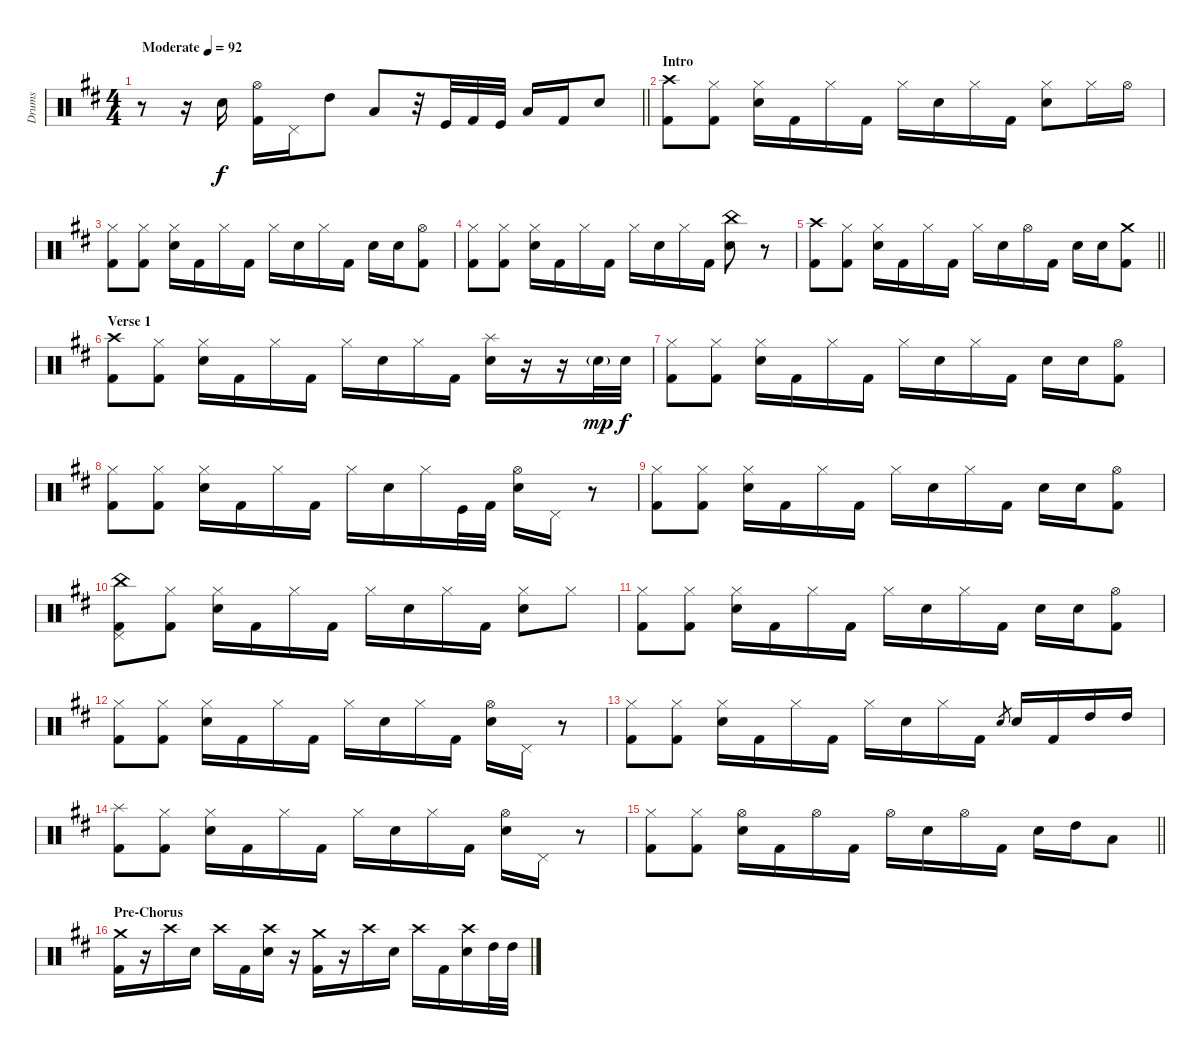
\track ("Drums" "Drums") {instrument percussion}
\staff {score}
\articulation defaults
\ts (4 4)
\tempo (92 "Moderate")
\clef neutral
\barLineRight lightlight
\ks d
r.8{dy f} r.16 "Snare (hit) 2".16 ("Hi-Hat (open)" "Kick (hit) 2").16 "Pedal Hi-Hat (hit)".16 "High Tom (hit)".8 "Low Tom (hit)".8 r.32 "Kick (hit)".32 "Kick (hit) 2".32 "Kick (hit)".32 "Low Tom (hit)".16 "Kick (hit) 2".16 "Snare (hit) 2".8 |
\section ("" "Intro")
("Crash high (hit)" "Kick (hit) 2").8 ("Hi-Hat (closed)" "Kick (hit) 2").8 ("Hi-Hat (closed)" "Snare (hit) 2").16 "Kick (hit) 2".16 "Hi-Hat (closed)".16 "Kick (hit) 2".16 "Hi-Hat (closed)".16 "Snare (hit) 2".16 "Hi-Hat (closed)".16 "Kick (hit) 2".16 ("Hi-Hat (closed)" "Snare (hit) 2").8 "Hi-Hat (closed)".16 "Hi-Hat (open)".16 |
("Hi-Hat (closed)" "Kick (hit) 2").8 ("Hi-Hat (closed)" "Kick (hit) 2").8 ("Hi-Hat (closed)" "Snare (hit) 2").16 "Kick (hit) 2".16 "Hi-Hat (closed)".16 "Kick (hit) 2".16 "Hi-Hat (closed)".16 "Snare (hit) 2".16 "Hi-Hat (closed)".16 "Kick (hit) 2".16 "Snare (hit) 2".16 "Snare (hit) 2".16 ("Hi-Hat (open)" "Kick (hit) 2").8 |
("Hi-Hat (closed)" "Kick (hit) 2").8 ("Hi-Hat (closed)" "Kick (hit) 2").8 ("Hi-Hat (closed)" "Snare (hit) 2").16 "Kick (hit) 2".16 "Hi-Hat (closed)".16 "Kick (hit) 2".16 "Hi-Hat (closed)".16 "Snare (hit) 2".16 "Hi-Hat (closed)".16 "Kick (hit) 2".16 ("China (hit)" "Snare (hit) 2").8 r.8 |
\barLineRight lightlight
("Crash high (hit)" "Kick (hit) 2").8 ("Hi-Hat (closed)" "Kick (hit) 2").8 ("Hi-Hat (closed)" "Snare (hit) 2").16 "Kick (hit) 2".16 "Hi-Hat (closed)".16 "Kick (hit) 2".16 "Hi-Hat (closed)".16 "Snare (hit) 2".16 "Hi-Hat (open)".16 "Kick (hit) 2".16 "Snare (hit) 2".16 "Snare (hit) 2".16 ("Crash medium (hit)" "Kick (hit) 2").8 |
\section ("" "Verse 1")
("Crash high (hit)" "Kick (hit) 2").8 ("Hi-Hat (closed)" "Kick (hit) 2").8 ("Hi-Hat (closed)" "Snare (hit) 2").16 "Kick (hit) 2".16 "Hi-Hat (closed)".16 "Kick (hit) 2".16 "Hi-Hat (closed)".16 "Snare (hit) 2".16 "Hi-Hat (closed)".16 "Kick (hit) 2".16 ("Splash (hit)" "Snare (hit) 2").16 r.16 r.16 "Snare (hit) 2"{g}.32{dy mp} "Snare (hit) 2".32{dy f} |
("Hi-Hat (closed)" "Kick (hit) 2").8 ("Hi-Hat (closed)" "Kick (hit) 2").8 ("Hi-Hat (closed)" "Snare (hit) 2").16 "Kick (hit) 2".16 "Hi-Hat (closed)".16 "Kick (hit) 2".16 "Hi-Hat (closed)".16 "Snare (hit) 2".16 "Hi-Hat (closed)".16 "Kick (hit) 2".16 "Snare (hit) 2".16 "Snare (hit) 2".16 ("Hi-Hat (open)" "Kick (hit) 2").8 |
("Hi-Hat (closed)" "Kick (hit) 2").8 ("Hi-Hat (closed)" "Kick (hit) 2").8 ("Hi-Hat (closed)" "Snare (hit) 2").16 "Kick (hit) 2".16 "Hi-Hat (closed)".16 "Kick (hit) 2".16 "Hi-Hat (closed)".16 "Snare (hit) 2".16 "Hi-Hat (closed)".16 "Kick (hit)".32 "Kick (hit) 2".32 ("Hi-Hat (open)" "Snare (hit) 2").16 "Pedal Hi-Hat (hit)".16 r.8 |
("Hi-Hat (closed)" "Kick (hit) 2").8 ("Hi-Hat (closed)" "Kick (hit) 2").8 ("Hi-Hat (closed)" "Snare (hit) 2").16 "Kick (hit) 2".16 "Hi-Hat (closed)".16 "Kick (hit) 2".16 "Hi-Hat (closed)".16 "Snare (hit) 2".16 "Hi-Hat (closed)".16 "Kick (hit) 2".16 "Snare (hit) 2".16 "Snare (hit) 2".16 ("Hi-Hat (open)" "Kick (hit) 2").8 |
("China (hit)" "Kick (hit) 2" "Pedal Hi-Hat (hit)").8 ("Hi-Hat (closed)" "Kick (hit) 2").8 ("Hi-Hat (closed)" "Snare (hit) 2").16 "Kick (hit) 2".16 "Hi-Hat (closed)".16 "Kick (hit) 2".16 "Hi-Hat (closed)".16 "Snare (hit) 2".16 "Hi-Hat (closed)".16 "Kick (hit) 2".16 ("Hi-Hat (closed)" "Snare (hit) 2").8 "Hi-Hat (closed)".8 |
("Hi-Hat (closed)" "Kick (hit) 2").8 ("Hi-Hat (closed)" "Kick (hit) 2").8 ("Hi-Hat (closed)" "Snare (hit) 2").16 "Kick (hit) 2".16 "Hi-Hat (closed)".16 "Kick (hit) 2".16 "Hi-Hat (closed)".16 "Snare (hit) 2".16 "Hi-Hat (closed)".16 "Kick (hit) 2".16 "Snare (hit) 2".16 "Snare (hit) 2".16 ("Hi-Hat (open)" "Kick (hit) 2").8 |
("Hi-Hat (closed)" "Kick (hit) 2").8 ("Hi-Hat (closed)" "Kick (hit) 2").8 ("Hi-Hat (closed)" "Snare (hit) 2").16 "Kick (hit) 2".16 "Hi-Hat (closed)".16 "Kick (hit) 2".16 "Hi-Hat (closed)".16 "Snare (hit) 2".16 "Hi-Hat (closed)".16 "Kick (hit) 2".16 ("Hi-Hat (open)" "Snare (hit) 2").16 "Pedal Hi-Hat (hit)".16 r.8 |
("Hi-Hat (closed)" "Kick (hit) 2").8 ("Hi-Hat (closed)" "Kick (hit) 2").8 ("Hi-Hat (closed)" "Snare (hit) 2").16 "Kick (hit) 2".16 "Hi-Hat (closed)".16 "Kick (hit) 2".16 "Hi-Hat (closed)".16 "Snare (hit) 2".16 "Hi-Hat (closed)".16 "Kick (hit) 2".16 "Snare (hit) 2".8{gr} "Snare (hit) 2".16 "Kick (hit) 2".16 "High Tom (hit)".16 "High Tom (hit)".16 |
("Splash (hit)" "Kick (hit) 2").8 ("Hi-Hat (closed)" "Kick (hit) 2").8 ("Hi-Hat (closed)" "Snare (hit) 2").16 "Kick (hit) 2".16 "Hi-Hat (closed)".16 "Kick (hit) 2".16 "Hi-Hat (closed)".16 "Snare (hit) 2".16 "Hi-Hat (closed)".16 "Kick (hit) 2".16 ("Hi-Hat (open)" "Snare (hit) 2").16 "Pedal Hi-Hat (hit)".16 r.8 |
\barLineRight lightlight
("Hi-Hat (closed)" "Kick (hit) 2").8 ("Hi-Hat (closed)" "Kick (hit) 2").8 ("Hi-Hat (open)" "Snare (hit) 2").16 "Kick (hit) 2".16 "Hi-Hat (open)".16 "Kick (hit) 2".16 "Hi-Hat (open)".16 "Snare (hit) 2".16 "Hi-Hat (open)".16 "Kick (hit) 2".16 "Snare (hit) 2".16 "High Tom (hit)".16 "Low Tom (hit)".8 |
\section ("" "Pre-Chorus")
("Crash medium (hit)" "Kick (hit) 2").16 r.16 "Crash high (hit)".16 "Snare (hit) 2".16 "Crash high (hit)".16 "Kick (hit) 2".16 ("Crash high (hit)" "Snare (hit) 2").16 r.16 ("Crash medium (hit)" "Kick (hit) 2").16 r.16 "Crash high (hit)".16 "Snare (hit) 2".16 "Crash high (hit)".16 "Kick (hit) 2".16 ("Crash high (hit)" "Snare (hit) 2").16 "High Tom (hit)".32 "High Tom (hit)".32
